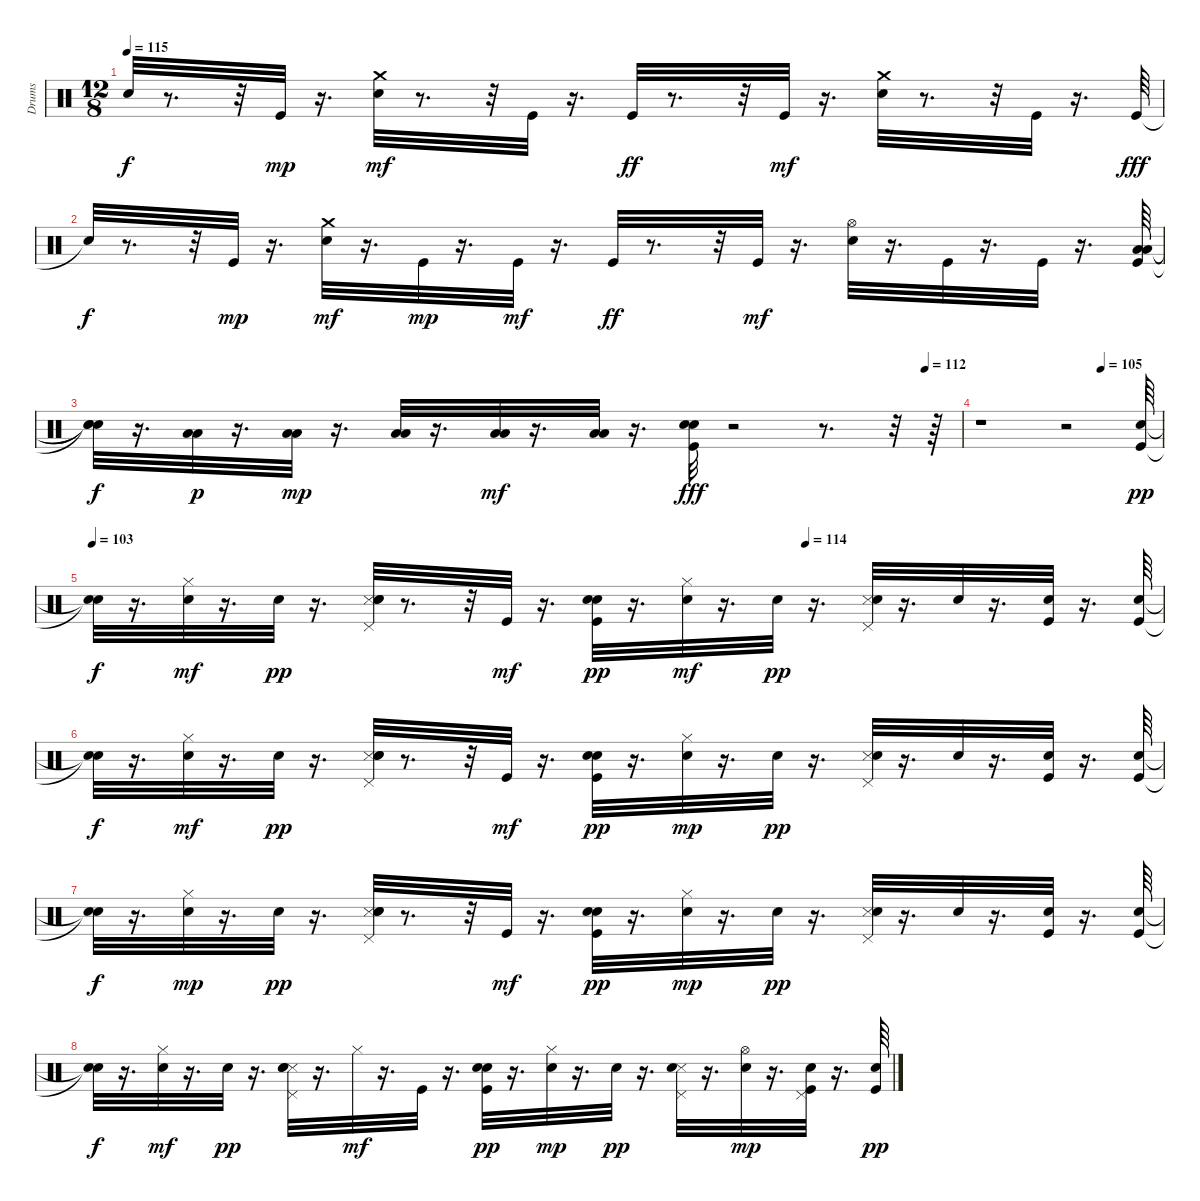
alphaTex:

\track ("Drums" "Drums") {instrument percussion}
\staff {score}
\articulation defaults
\ts (12 8)
\tempo 115
\clef neutral
\ks c "Snare (hit)"{t}.32{dy f}
r.8{d} r.32 "Kick (hit)".32{dy mp} r.16{d} ("Electric Snare (hit)" "Crash medium (hit)").32{dy mf} r.8{d} r.32 "Kick (hit)".32 r.16{d} "Kick (hit)".32{dy ff} r.8{d} r.32 "Kick (hit)".32{dy mf} r.16{d} ("Electric Snare (hit)" "Crash medium (hit)").32 r.8{d} r.32 "Kick (hit)".32 r.16{d} "Kick (hit)".64{dy fff} |
"Snare (hit)"{t}.32{dy f} r.8{d} r.32 "Kick (hit)".32{dy mp} r.16{d} ("Electric Snare (hit)" "Crash medium (hit)").32{dy mf} r.16{d} "Kick (hit)".32{dy mp} r.16{d} "Kick (hit)".32{dy mf} r.16{d} "Kick (hit)".32{dy ff} r.8{d} r.32 "Kick (hit)".32{dy mf} r.16{d} ("Electric Snare (hit)" "Hi-Hat (open)").32 r.16{d} "Kick (hit)".32 r.16{d} "Kick (hit)".32 r.16{d} ("Low Tom (hit)" "Kick (hit)" "Low Floor Tom (hit)").64 |
\tempo (112 0.9583333333333334)
("Snare (hit)"{t} "Snare (hit)"{t} "Snare (hit)"{t}).32{dy f} r.16{d} ("Low Tom (hit)" "Low Floor Tom (hit)").32{dy p} r.16{d} ("Low Floor Tom (hit)" "Low Tom (hit)").32{dy mp} r.16{d} ("Low Floor Tom (hit)" "Low Tom (hit)").32 r.16{d} ("Low Tom (hit)" "Low Floor Tom (hit)").32{dy mf} r.16{d} ("Low Floor Tom (hit)" "Low Tom (hit)").32 r.16{d} ("Snare (hit) 2" "Kick (hit)" "Electric Snare (hit)").32{dy fff} r.2 r.8{d} r.32 r.64 |
\tempo (105 0.6666666666666666)
r.1 r.2 ("Kick (hit)" "Electric Snare (hit)").64{dy pp} |
\tempo 103
\tempo (114 0.6666666666666666)
("Snare (hit)"{t} "Snare (hit)"{t}).32{dy f} r.16{d} ("Snare (hit) 2" "Hi-Hat (closed)").32{dy mf} r.16{d} "Snare (hit) 2".32{dy pp} r.16{d} ("Snare (side stick) 3" "Snare (hit) 2" "Electric Snare (hit)" "Pedal Hi-Hat (hit)").32 r.8{d} r.32 "Kick (hit)".32{dy mf} r.16{d} ("Kick (hit)" "Snare (hit) 2" "Electric Snare (hit)").32{dy pp} r.16{d} ("Snare (hit) 2" "Hi-Hat (closed)").32{dy mf} r.16{d} "Snare (hit) 2".32{dy pp} r.16{d} ("Snare (side stick) 3" "Electric Snare (hit)" "Pedal Hi-Hat (hit)").32 r.16{d} "Snare (hit) 2".32 r.16{d} ("Kick (hit)" "Snare (hit) 2").32 r.16{d} ("Kick (hit)" "Electric Snare (hit)").64 |
("Snare (hit)"{t} "Snare (hit)"{t}).32{dy f} r.16{d} ("Snare (hit) 2" "Hi-Hat (closed)").32{dy mf} r.16{d} "Snare (hit) 2".32{dy pp} r.16{d} ("Snare (side stick) 3" "Snare (hit) 2" "Electric Snare (hit)" "Pedal Hi-Hat (hit)").32 r.8{d} r.32 "Kick (hit)".32{dy mf} r.16{d} ("Kick (hit)" "Snare (hit) 2" "Electric Snare (hit)").32{dy pp} r.16{d} ("Snare (hit) 2" "Hi-Hat (closed)").32{dy mp} r.16{d} "Snare (hit) 2".32{dy pp} r.16{d} ("Snare (side stick) 3" "Electric Snare (hit)" "Pedal Hi-Hat (hit)").32 r.16{d} "Snare (hit) 2".32 r.16{d} ("Kick (hit)" "Snare (hit) 2").32 r.16{d} ("Kick (hit)" "Electric Snare (hit)").64 |
("Snare (hit)"{t} "Snare (hit)"{t}).32{dy f} r.16{d} ("Snare (hit) 2" "Hi-Hat (closed)").32{dy mp} r.16{d} "Snare (hit) 2".32{dy pp} r.16{d} ("Snare (side stick) 3" "Snare (hit) 2" "Electric Snare (hit)" "Pedal Hi-Hat (hit)").32 r.8{d} r.32 "Kick (hit)".32{dy mf} r.16{d} ("Kick (hit)" "Snare (hit) 2" "Electric Snare (hit)").32{dy pp} r.16{d} ("Snare (hit) 2" "Hi-Hat (closed)").32{dy mp} r.16{d} "Snare (hit) 2".32{dy pp} r.16{d} ("Snare (side stick) 3" "Electric Snare (hit)" "Pedal Hi-Hat (hit)").32 r.16{d} "Snare (hit) 2".32 r.16{d} ("Kick (hit)" "Snare (hit) 2").32 r.16{d} ("Kick (hit)" "Electric Snare (hit)").64 |
("Snare (hit)"{t} "Snare (hit)"{t}).32{dy f} r.16{d} ("Snare (hit) 2" "Hi-Hat (closed)").32{dy mf} r.16{d} "Snare (hit) 2".32{dy pp} r.16{d} ("Snare (side stick) 3" "Snare (hit) 2" "Electric Snare (hit)" "Pedal Hi-Hat (hit)").32 r.16{d} "Hi-Hat (closed)".32{dy mf} r.16{d} "Kick (hit)".32 r.16{d} ("Kick (hit)" "Snare (hit) 2" "Electric Snare (hit)").32{dy pp} r.16{d} ("Snare (hit) 2" "Hi-Hat (closed)").32{dy mp} r.16{d} "Snare (hit) 2".32{dy pp} r.16{d} ("Snare (side stick) 3" "Electric Snare (hit)" "Pedal Hi-Hat (hit)").32 r.16{d} ("Snare (hit) 2" "Hi-Hat (open)").32{dy mp} r.16{d} ("Kick (hit)" "Snare (hit) 2" "Pedal Hi-Hat (hit)").32 r.16{d} ("Kick (hit)" "Electric Snare (hit)").64{dy pp}
